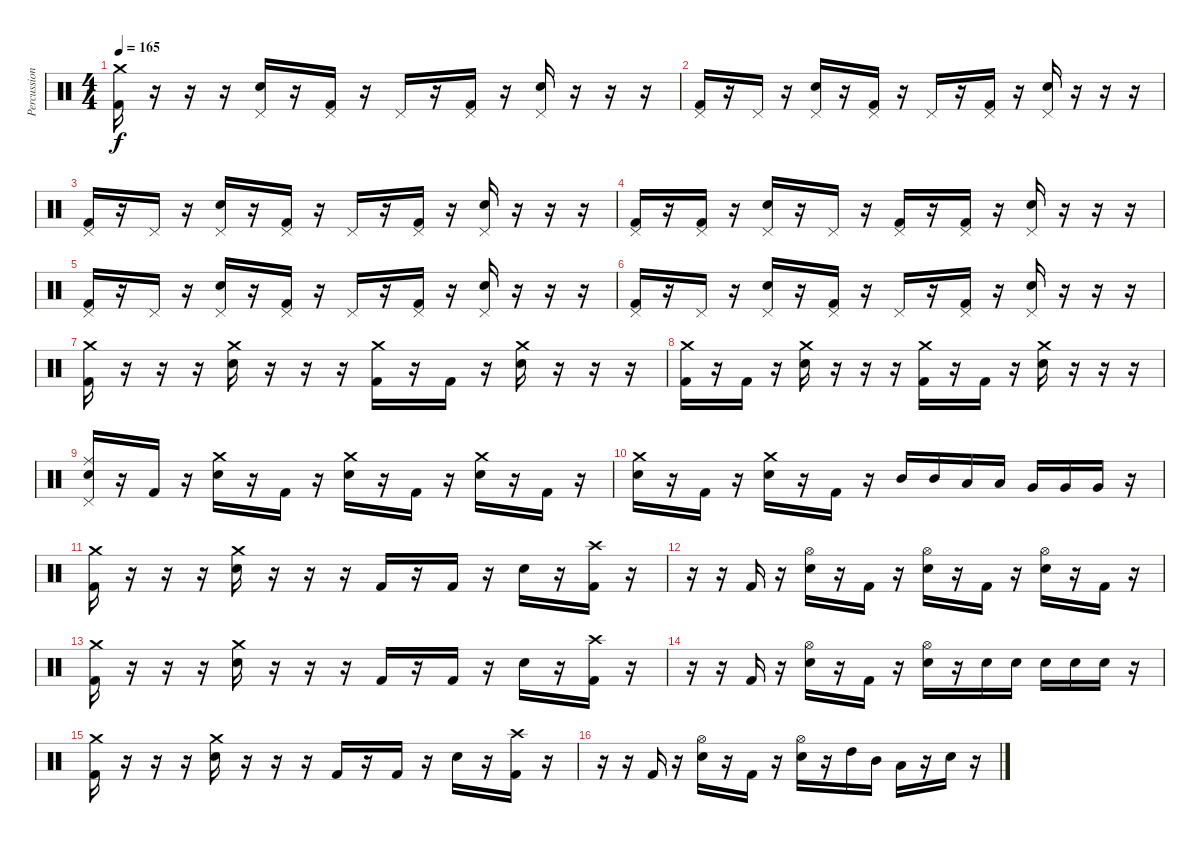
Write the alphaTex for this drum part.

\track ("Percussion" "Percussion") {instrument percussion}
\staff {score}
\articulation defaults
\ts (4 4)
\tempo 165
\clef neutral
\ks c
("Crash medium (hit)" "Kick (hit) 2").16{dy f} r.16 r.16 r.16 ("Pedal Hi-Hat (hit)" "Electric Snare (hit)").16 r.16 ("Pedal Hi-Hat (hit)" "Kick (hit) 2").16 r.16 "Pedal Hi-Hat (hit)".16 r.16 ("Pedal Hi-Hat (hit)" "Kick (hit) 2").16 r.16 ("Pedal Hi-Hat (hit)" "Electric Snare (hit)").16 r.16 r.16 r.16 |
("Pedal Hi-Hat (hit)" "Kick (hit) 2").16 r.16 "Pedal Hi-Hat (hit)".16 r.16 ("Pedal Hi-Hat (hit)" "Electric Snare (hit)").16 r.16 ("Pedal Hi-Hat (hit)" "Kick (hit) 2").16 r.16 "Pedal Hi-Hat (hit)".16 r.16 ("Pedal Hi-Hat (hit)" "Kick (hit) 2").16 r.16 ("Pedal Hi-Hat (hit)" "Electric Snare (hit)").16 r.16 r.16 r.16 |
("Pedal Hi-Hat (hit)" "Kick (hit) 2").16 r.16 "Pedal Hi-Hat (hit)".16 r.16 ("Pedal Hi-Hat (hit)" "Electric Snare (hit)").16 r.16 ("Pedal Hi-Hat (hit)" "Kick (hit) 2").16 r.16 "Pedal Hi-Hat (hit)".16 r.16 ("Pedal Hi-Hat (hit)" "Kick (hit) 2").16 r.16 ("Pedal Hi-Hat (hit)" "Electric Snare (hit)").16 r.16 r.16 r.16 |
("Pedal Hi-Hat (hit)" "Kick (hit) 2").16 r.16 ("Pedal Hi-Hat (hit)" "Kick (hit) 2").16 r.16 ("Pedal Hi-Hat (hit)" "Electric Snare (hit)").16 r.16 "Pedal Hi-Hat (hit)".16 r.16 ("Pedal Hi-Hat (hit)" "Kick (hit) 2").16 r.16 ("Pedal Hi-Hat (hit)" "Kick (hit) 2").16 r.16 ("Pedal Hi-Hat (hit)" "Electric Snare (hit)").16 r.16 r.16 r.16 |
("Pedal Hi-Hat (hit)" "Kick (hit) 2").16 r.16 "Pedal Hi-Hat (hit)".16 r.16 ("Pedal Hi-Hat (hit)" "Electric Snare (hit)").16 r.16 ("Pedal Hi-Hat (hit)" "Kick (hit) 2").16 r.16 "Pedal Hi-Hat (hit)".16 r.16 ("Pedal Hi-Hat (hit)" "Kick (hit) 2").16 r.16 ("Pedal Hi-Hat (hit)" "Electric Snare (hit)").16 r.16 r.16 r.16 |
("Pedal Hi-Hat (hit)" "Kick (hit) 2").16 r.16 "Pedal Hi-Hat (hit)".16 r.16 ("Pedal Hi-Hat (hit)" "Electric Snare (hit)").16 r.16 ("Pedal Hi-Hat (hit)" "Kick (hit) 2").16 r.16 "Pedal Hi-Hat (hit)".16 r.16 ("Pedal Hi-Hat (hit)" "Kick (hit) 2").16 r.16 ("Pedal Hi-Hat (hit)" "Electric Snare (hit)").16 r.16 r.16 r.16 |
("Crash medium (hit)" "Kick (hit) 2").16 r.16 r.16 r.16 ("Crash medium (hit)" "Electric Snare (hit)").16 r.16 r.16 r.16 ("Crash medium (hit)" "Kick (hit) 2").16 r.16 "Kick (hit) 2".16 r.16 ("Crash medium (hit)" "Electric Snare (hit)").16 r.16 r.16 r.16 |
("Crash medium (hit)" "Kick (hit) 2").16 r.16 "Kick (hit) 2".16 r.16 ("Crash medium (hit)" "Electric Snare (hit)").16 r.16 r.16 r.16 ("Crash medium (hit)" "Kick (hit) 2").16 r.16 "Kick (hit) 2".16 r.16 ("Crash medium (hit)" "Electric Snare (hit)").16 r.16 r.16 r.16 |
("Pedal Hi-Hat (hit)" "Ride (middle)" "Electric Snare (hit)").16 r.16 "Kick (hit) 2".16 r.16 ("Crash medium (hit)" "Electric Snare (hit)").16 r.16 "Kick (hit) 2".16 r.16 ("Crash medium (hit)" "Electric Snare (hit)").16 r.16 "Kick (hit) 2".16 r.16 ("Crash medium (hit)" "Electric Snare (hit)").16 r.16 "Kick (hit) 2".16 r.16 |
("Crash medium (hit)" "Electric Snare (hit)").16 r.16 "Kick (hit) 2".16 r.16 ("Crash medium (hit)" "Electric Snare (hit)").16 r.16 "Kick (hit) 2".16 r.16 "Mid Tom (hit)".16 "Mid Tom (hit)".16 "Low Tom (hit)".16 "Low Tom (hit)".16 "Very Low Tom (hit)".16 "Very Low Tom (hit)".16 "Very Low Tom (hit)".16 r.16 |
("Crash medium (hit)" "Kick (hit) 2").16 r.16 r.16 r.16 ("Crash medium (hit)" "Electric Snare (hit)").16 r.16 r.16 r.16 "Kick (hit) 2".16 r.16 "Kick (hit) 2".16 r.16 "Electric Snare (hit)".16 r.16 ("Crash high (hit)" "Kick (hit) 2").16 r.16 |
r.16 r.16 "Kick (hit) 2".16 r.16 ("Hi-Hat (open)" "Electric Snare (hit)").16 r.16 "Kick (hit) 2".16 r.16 ("Hi-Hat (open)" "Electric Snare (hit)").16 r.16 "Kick (hit) 2".16 r.16 ("Hi-Hat (open)" "Electric Snare (hit)").16 r.16 "Kick (hit) 2".16 r.16 |
("Crash medium (hit)" "Kick (hit) 2").16 r.16 r.16 r.16 ("Crash medium (hit)" "Electric Snare (hit)").16 r.16 r.16 r.16 "Kick (hit) 2".16 r.16 "Kick (hit) 2".16 r.16 "Electric Snare (hit)".16 r.16 ("Crash high (hit)" "Kick (hit) 2").16 r.16 |
r.16 r.16 "Kick (hit) 2".16 r.16 ("Hi-Hat (open)" "Electric Snare (hit)").16 r.16 "Kick (hit) 2".16 r.16 ("Hi-Hat (open)" "Electric Snare (hit)").16 r.16 "Electric Snare (hit)".16 "Electric Snare (hit)".16 "Electric Snare (hit)".16 "Electric Snare (hit)".16 "Electric Snare (hit)".16 r.16 |
("Crash medium (hit)" "Kick (hit) 2").16 r.16 r.16 r.16 ("Crash medium (hit)" "Electric Snare (hit)").16 r.16 r.16 r.16 "Kick (hit) 2".16 r.16 "Kick (hit) 2".16 r.16 "Electric Snare (hit)".16 r.16 ("Crash high (hit)" "Kick (hit) 2").16 r.16 |
r.16 r.16 "Kick (hit) 2".16 r.16 ("Hi-Hat (open)" "Electric Snare (hit)").16 r.16 "Kick (hit) 2".16 r.16 ("Hi-Hat (open)" "Electric Snare (hit)").16 r.16 "High Tom (hit)".16 "Mid Tom (hit)".16 "Low Tom (hit)".16 r.16 "Electric Snare (hit)".16 r.16
